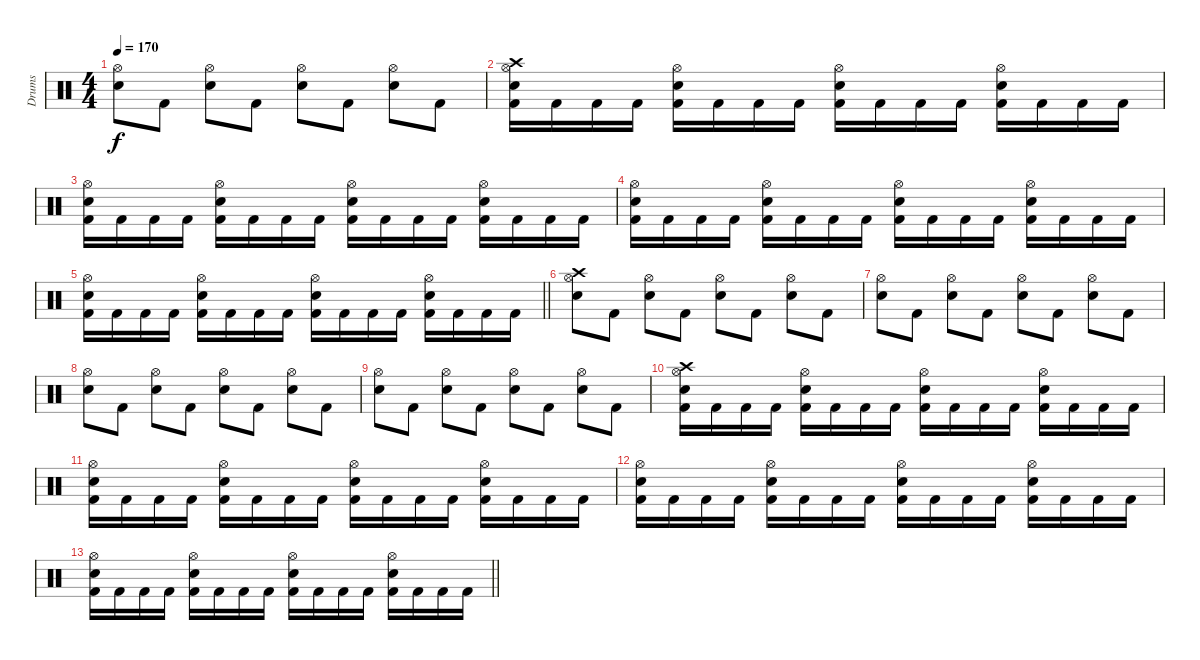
\track ("Drums" "Drums") {instrument percussion}
\staff {score}
\articulation defaults
\ts (4 4)
\tempo 170
\clef neutral
\ks c
("Hi-Hat (open)" "Electric Snare (hit)").8{dy f} "Kick (hit) 2".8 ("Hi-Hat (open)" "Electric Snare (hit)").8 "Kick (hit) 2".8 ("Hi-Hat (open)" "Electric Snare (hit)").8 "Kick (hit) 2".8 ("Hi-Hat (open)" "Electric Snare (hit)").8 "Kick (hit) 2".8 |
("Crash high (hit)" "Hi-Hat (open)" "Electric Snare (hit)" "Kick (hit) 2").16 "Kick (hit) 2".16 "Kick (hit) 2".16 "Kick (hit) 2".16 ("Hi-Hat (open)" "Electric Snare (hit)" "Kick (hit) 2").16 "Kick (hit) 2".16 "Kick (hit) 2".16 "Kick (hit) 2".16 ("Hi-Hat (open)" "Electric Snare (hit)" "Kick (hit) 2").16 "Kick (hit) 2".16 "Kick (hit) 2".16 "Kick (hit) 2".16 ("Hi-Hat (open)" "Electric Snare (hit)" "Kick (hit) 2").16 "Kick (hit) 2".16 "Kick (hit) 2".16 "Kick (hit) 2".16 |
("Hi-Hat (open)" "Electric Snare (hit)" "Kick (hit) 2").16 "Kick (hit) 2".16 "Kick (hit) 2".16 "Kick (hit) 2".16 ("Hi-Hat (open)" "Electric Snare (hit)" "Kick (hit) 2").16 "Kick (hit) 2".16 "Kick (hit) 2".16 "Kick (hit) 2".16 ("Hi-Hat (open)" "Electric Snare (hit)" "Kick (hit) 2").16 "Kick (hit) 2".16 "Kick (hit) 2".16 "Kick (hit) 2".16 ("Hi-Hat (open)" "Electric Snare (hit)" "Kick (hit) 2").16 "Kick (hit) 2".16 "Kick (hit) 2".16 "Kick (hit) 2".16 |
("Hi-Hat (open)" "Electric Snare (hit)" "Kick (hit) 2").16 "Kick (hit) 2".16 "Kick (hit) 2".16 "Kick (hit) 2".16 ("Hi-Hat (open)" "Electric Snare (hit)" "Kick (hit) 2").16 "Kick (hit) 2".16 "Kick (hit) 2".16 "Kick (hit) 2".16 ("Hi-Hat (open)" "Electric Snare (hit)" "Kick (hit) 2").16 "Kick (hit) 2".16 "Kick (hit) 2".16 "Kick (hit) 2".16 ("Hi-Hat (open)" "Electric Snare (hit)" "Kick (hit) 2").16 "Kick (hit) 2".16 "Kick (hit) 2".16 "Kick (hit) 2".16 |
\barLineRight lightlight
("Hi-Hat (open)" "Electric Snare (hit)" "Kick (hit) 2").16 "Kick (hit) 2".16 "Kick (hit) 2".16 "Kick (hit) 2".16 ("Hi-Hat (open)" "Electric Snare (hit)" "Kick (hit) 2").16 "Kick (hit) 2".16 "Kick (hit) 2".16 "Kick (hit) 2".16 ("Hi-Hat (open)" "Electric Snare (hit)" "Kick (hit) 2").16 "Kick (hit) 2".16 "Kick (hit) 2".16 "Kick (hit) 2".16 ("Hi-Hat (open)" "Electric Snare (hit)" "Kick (hit) 2").16 "Kick (hit) 2".16 "Kick (hit) 2".16 "Kick (hit) 2".16 |
("Crash high (hit)" "Hi-Hat (open)" "Electric Snare (hit)").8 "Kick (hit) 2".8 ("Hi-Hat (open)" "Electric Snare (hit)").8 "Kick (hit) 2".8 ("Hi-Hat (open)" "Electric Snare (hit)").8 "Kick (hit) 2".8 ("Hi-Hat (open)" "Electric Snare (hit)").8 "Kick (hit) 2".8 |
("Hi-Hat (open)" "Electric Snare (hit)").8 "Kick (hit) 2".8 ("Hi-Hat (open)" "Electric Snare (hit)").8 "Kick (hit) 2".8 ("Hi-Hat (open)" "Electric Snare (hit)").8 "Kick (hit) 2".8 ("Hi-Hat (open)" "Electric Snare (hit)").8 "Kick (hit) 2".8 |
("Hi-Hat (open)" "Electric Snare (hit)").8 "Kick (hit) 2".8 ("Hi-Hat (open)" "Electric Snare (hit)").8 "Kick (hit) 2".8 ("Hi-Hat (open)" "Electric Snare (hit)").8 "Kick (hit) 2".8 ("Hi-Hat (open)" "Electric Snare (hit)").8 "Kick (hit) 2".8 |
("Hi-Hat (open)" "Electric Snare (hit)").8 "Kick (hit) 2".8 ("Hi-Hat (open)" "Electric Snare (hit)").8 "Kick (hit) 2".8 ("Hi-Hat (open)" "Electric Snare (hit)").8 "Kick (hit) 2".8 ("Hi-Hat (open)" "Electric Snare (hit)").8 "Kick (hit) 2".8 |
("Crash high (hit)" "Hi-Hat (open)" "Electric Snare (hit)" "Kick (hit) 2").16{volume 0} "Kick (hit) 2".16 "Kick (hit) 2".16 "Kick (hit) 2".16 ("Hi-Hat (open)" "Electric Snare (hit)" "Kick (hit) 2").16 "Kick (hit) 2".16 "Kick (hit) 2".16 "Kick (hit) 2".16 ("Hi-Hat (open)" "Electric Snare (hit)" "Kick (hit) 2").16 "Kick (hit) 2".16 "Kick (hit) 2".16 "Kick (hit) 2".16 ("Hi-Hat (open)" "Electric Snare (hit)" "Kick (hit) 2").16 "Kick (hit) 2".16 "Kick (hit) 2".16 "Kick (hit) 2".16 |
("Hi-Hat (open)" "Electric Snare (hit)" "Kick (hit) 2").16 "Kick (hit) 2".16 "Kick (hit) 2".16 "Kick (hit) 2".16 ("Hi-Hat (open)" "Electric Snare (hit)" "Kick (hit) 2").16 "Kick (hit) 2".16 "Kick (hit) 2".16 "Kick (hit) 2".16 ("Hi-Hat (open)" "Electric Snare (hit)" "Kick (hit) 2").16 "Kick (hit) 2".16 "Kick (hit) 2".16 "Kick (hit) 2".16 ("Hi-Hat (open)" "Electric Snare (hit)" "Kick (hit) 2").16 "Kick (hit) 2".16 "Kick (hit) 2".16 "Kick (hit) 2".16 |
("Hi-Hat (open)" "Electric Snare (hit)" "Kick (hit) 2").16 "Kick (hit) 2".16 "Kick (hit) 2".16 "Kick (hit) 2".16 ("Hi-Hat (open)" "Electric Snare (hit)" "Kick (hit) 2").16 "Kick (hit) 2".16 "Kick (hit) 2".16 "Kick (hit) 2".16 ("Hi-Hat (open)" "Electric Snare (hit)" "Kick (hit) 2").16 "Kick (hit) 2".16 "Kick (hit) 2".16 "Kick (hit) 2".16 ("Hi-Hat (open)" "Electric Snare (hit)" "Kick (hit) 2").16 "Kick (hit) 2".16 "Kick (hit) 2".16 "Kick (hit) 2".16 |
\barLineRight lightlight
("Hi-Hat (open)" "Electric Snare (hit)" "Kick (hit) 2").16 "Kick (hit) 2".16 "Kick (hit) 2".16 "Kick (hit) 2".16 ("Hi-Hat (open)" "Electric Snare (hit)" "Kick (hit) 2").16 "Kick (hit) 2".16 "Kick (hit) 2".16 "Kick (hit) 2".16 ("Hi-Hat (open)" "Electric Snare (hit)" "Kick (hit) 2").16 "Kick (hit) 2".16 "Kick (hit) 2".16 "Kick (hit) 2".16 ("Hi-Hat (open)" "Electric Snare (hit)" "Kick (hit) 2").16 "Kick (hit) 2".16 "Kick (hit) 2".16 "Kick (hit) 2".16
